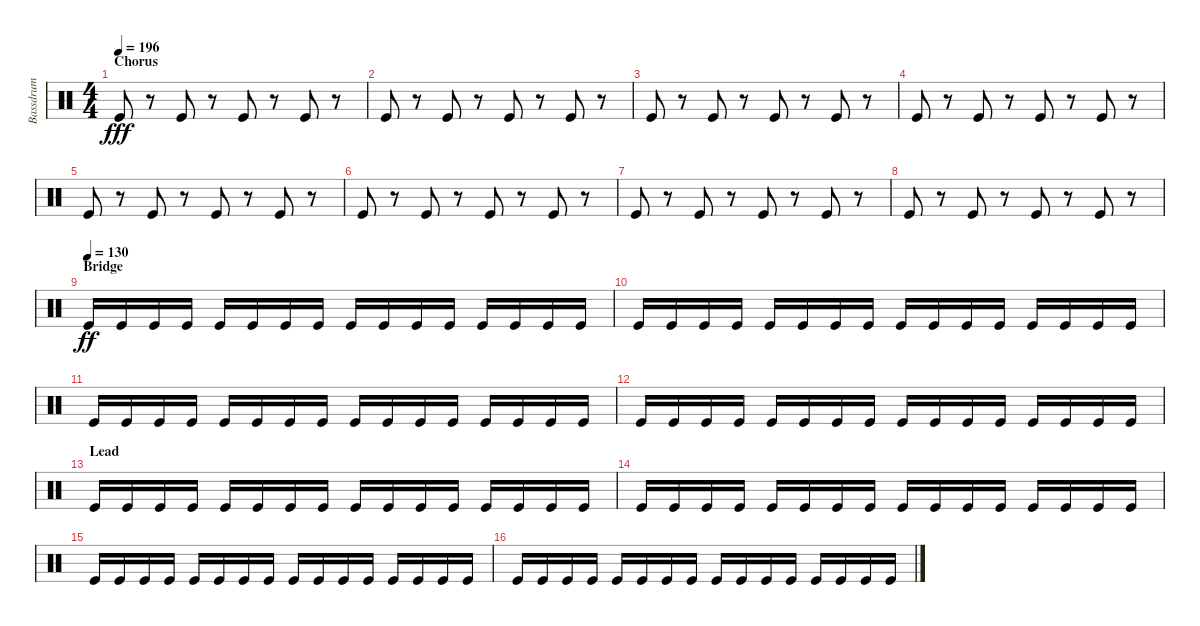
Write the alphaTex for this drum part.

\track ("Bassdrum" "Bassdrum") {instrument percussion}
\staff {score}
\articulation defaults
\ts (4 4)
\section ("" "Chorus")
\tempo 196
\clef neutral
\ks c "Kick (hit)".8{dy fff}
r.8 "Kick (hit)".8 r.8 "Kick (hit)".8 r.8 "Kick (hit)".8 r.8 |
"Kick (hit)".8 r.8 "Kick (hit)".8 r.8 "Kick (hit)".8 r.8 "Kick (hit)".8 r.8 |
"Kick (hit)".8 r.8 "Kick (hit)".8 r.8 "Kick (hit)".8 r.8 "Kick (hit)".8 r.8 |
"Kick (hit)".8 r.8 "Kick (hit)".8 r.8 "Kick (hit)".8 r.8 "Kick (hit)".8 r.8 |
"Kick (hit)".8 r.8 "Kick (hit)".8 r.8 "Kick (hit)".8 r.8 "Kick (hit)".8 r.8 |
"Kick (hit)".8 r.8 "Kick (hit)".8 r.8 "Kick (hit)".8 r.8 "Kick (hit)".8 r.8 |
"Kick (hit)".8 r.8 "Kick (hit)".8 r.8 "Kick (hit)".8 r.8 "Kick (hit)".8 r.8 |
"Kick (hit)".8 r.8 "Kick (hit)".8 r.8 "Kick (hit)".8 r.8 "Kick (hit)".8 r.8 |
\section ("" "Bridge")
\tempo (130)
"Kick (hit)".16{dy ff} "Kick (hit)".16 "Kick (hit)".16 "Kick (hit)".16 "Kick (hit)".16 "Kick (hit)".16 "Kick (hit)".16 "Kick (hit)".16 "Kick (hit)".16 "Kick (hit)".16 "Kick (hit)".16 "Kick (hit)".16 "Kick (hit)".16 "Kick (hit)".16 "Kick (hit)".16 "Kick (hit)".16 |
"Kick (hit)".16 "Kick (hit)".16 "Kick (hit)".16 "Kick (hit)".16 "Kick (hit)".16 "Kick (hit)".16 "Kick (hit)".16 "Kick (hit)".16 "Kick (hit)".16 "Kick (hit)".16 "Kick (hit)".16 "Kick (hit)".16 "Kick (hit)".16 "Kick (hit)".16 "Kick (hit)".16 "Kick (hit)".16 |
"Kick (hit)".16 "Kick (hit)".16 "Kick (hit)".16 "Kick (hit)".16 "Kick (hit)".16 "Kick (hit)".16 "Kick (hit)".16 "Kick (hit)".16 "Kick (hit)".16 "Kick (hit)".16 "Kick (hit)".16 "Kick (hit)".16 "Kick (hit)".16 "Kick (hit)".16 "Kick (hit)".16 "Kick (hit)".16 |
"Kick (hit)".16 "Kick (hit)".16 "Kick (hit)".16 "Kick (hit)".16 "Kick (hit)".16 "Kick (hit)".16 "Kick (hit)".16 "Kick (hit)".16 "Kick (hit)".16 "Kick (hit)".16 "Kick (hit)".16 "Kick (hit)".16 "Kick (hit)".16 "Kick (hit)".16 "Kick (hit)".16 "Kick (hit)".16 |
\section ("" "Lead")
"Kick (hit)".16 "Kick (hit)".16 "Kick (hit)".16 "Kick (hit)".16 "Kick (hit)".16 "Kick (hit)".16 "Kick (hit)".16 "Kick (hit)".16 "Kick (hit)".16 "Kick (hit)".16 "Kick (hit)".16 "Kick (hit)".16 "Kick (hit)".16 "Kick (hit)".16 "Kick (hit)".16 "Kick (hit)".16 |
"Kick (hit)".16 "Kick (hit)".16 "Kick (hit)".16 "Kick (hit)".16 "Kick (hit)".16 "Kick (hit)".16 "Kick (hit)".16 "Kick (hit)".16 "Kick (hit)".16 "Kick (hit)".16 "Kick (hit)".16 "Kick (hit)".16 "Kick (hit)".16 "Kick (hit)".16 "Kick (hit)".16 "Kick (hit)".16 |
"Kick (hit)".16 "Kick (hit)".16 "Kick (hit)".16 "Kick (hit)".16 "Kick (hit)".16 "Kick (hit)".16 "Kick (hit)".16 "Kick (hit)".16 "Kick (hit)".16 "Kick (hit)".16 "Kick (hit)".16 "Kick (hit)".16 "Kick (hit)".16 "Kick (hit)".16 "Kick (hit)".16 "Kick (hit)".16 |
"Kick (hit)".16 "Kick (hit)".16 "Kick (hit)".16 "Kick (hit)".16 "Kick (hit)".16 "Kick (hit)".16 "Kick (hit)".16 "Kick (hit)".16 "Kick (hit)".16 "Kick (hit)".16 "Kick (hit)".16 "Kick (hit)".16 "Kick (hit)".16 "Kick (hit)".16 "Kick (hit)".16 "Kick (hit)".16
